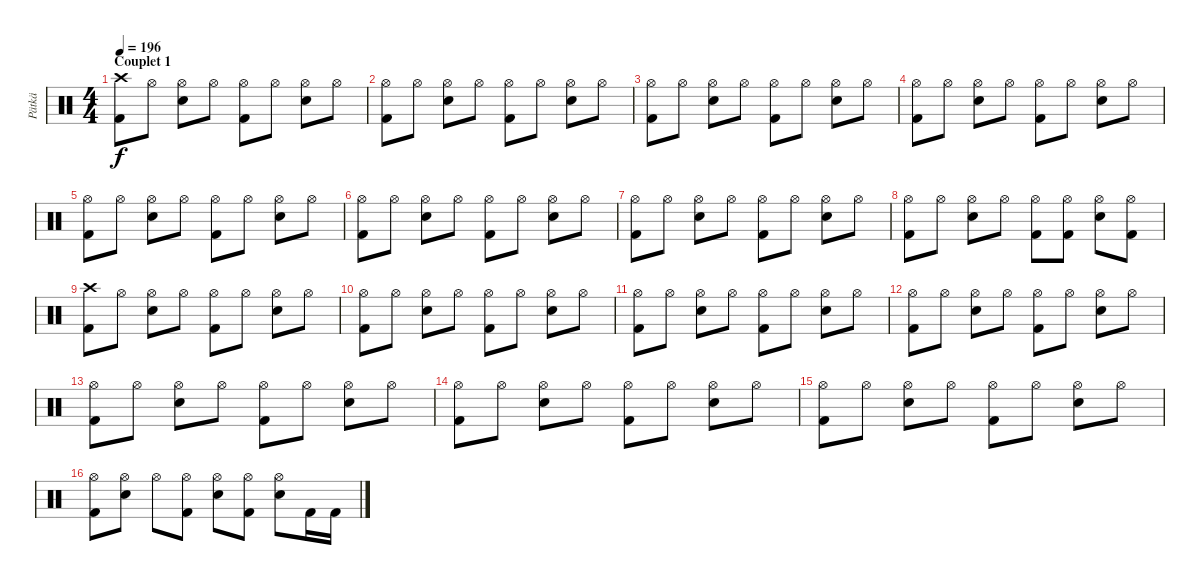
\track ("Pätkä" "Pätkä") {instrument percussion}
\staff {score}
\articulation defaults
\ts (4 4)
\section ("" "Couplet 1")
\tempo 196
\clef neutral
\ks c
("Crash high (hit)" "Kick (hit) 2").8{dy f} "Hi-Hat (open)".8 ("Hi-Hat (open)" "Electric Snare (hit)").8 "Hi-Hat (open)".8 ("Hi-Hat (open)" "Kick (hit) 2").8 "Hi-Hat (open)".8 ("Hi-Hat (open)" "Electric Snare (hit)").8 "Hi-Hat (open)".8 |
("Hi-Hat (open)" "Kick (hit) 2").8 "Hi-Hat (open)".8 ("Hi-Hat (open)" "Electric Snare (hit)").8 "Hi-Hat (open)".8 ("Hi-Hat (open)" "Kick (hit) 2").8 "Hi-Hat (open)".8 ("Hi-Hat (open)" "Electric Snare (hit)").8 "Hi-Hat (open)".8 |
("Hi-Hat (open)" "Kick (hit) 2").8 "Hi-Hat (open)".8 ("Hi-Hat (open)" "Electric Snare (hit)").8 "Hi-Hat (open)".8 ("Hi-Hat (open)" "Kick (hit) 2").8 "Hi-Hat (open)".8 ("Hi-Hat (open)" "Electric Snare (hit)").8 "Hi-Hat (open)".8 |
("Hi-Hat (open)" "Kick (hit) 2").8 "Hi-Hat (open)".8 ("Hi-Hat (open)" "Electric Snare (hit)").8 "Hi-Hat (open)".8 ("Hi-Hat (open)" "Kick (hit) 2").8 "Hi-Hat (open)".8 ("Hi-Hat (open)" "Electric Snare (hit)").8 "Hi-Hat (open)".8 |
("Hi-Hat (open)" "Kick (hit) 2").8 "Hi-Hat (open)".8 ("Hi-Hat (open)" "Electric Snare (hit)").8 "Hi-Hat (open)".8 ("Hi-Hat (open)" "Kick (hit) 2").8 "Hi-Hat (open)".8 ("Hi-Hat (open)" "Electric Snare (hit)").8 "Hi-Hat (open)".8 |
("Hi-Hat (open)" "Kick (hit) 2").8 "Hi-Hat (open)".8 ("Hi-Hat (open)" "Electric Snare (hit)").8 "Hi-Hat (open)".8 ("Hi-Hat (open)" "Kick (hit) 2").8 "Hi-Hat (open)".8 ("Hi-Hat (open)" "Electric Snare (hit)").8 "Hi-Hat (open)".8 |
("Hi-Hat (open)" "Kick (hit) 2").8 "Hi-Hat (open)".8 ("Hi-Hat (open)" "Electric Snare (hit)").8 "Hi-Hat (open)".8 ("Hi-Hat (open)" "Kick (hit) 2").8 "Hi-Hat (open)".8 ("Hi-Hat (open)" "Electric Snare (hit)").8 "Hi-Hat (open)".8 |
("Hi-Hat (open)" "Kick (hit) 2").8 "Hi-Hat (open)".8 ("Hi-Hat (open)" "Electric Snare (hit)").8 "Hi-Hat (open)".8 ("Hi-Hat (open)" "Kick (hit) 2").8 ("Hi-Hat (open)" "Kick (hit) 2").8 ("Hi-Hat (open)" "Electric Snare (hit)").8 ("Hi-Hat (open)" "Kick (hit) 2").8 |
("Crash high (hit)" "Kick (hit) 2").8 "Hi-Hat (open)".8 ("Hi-Hat (open)" "Electric Snare (hit)").8 "Hi-Hat (open)".8 ("Hi-Hat (open)" "Kick (hit) 2").8 "Hi-Hat (open)".8 ("Hi-Hat (open)" "Electric Snare (hit)").8 "Hi-Hat (open)".8 |
("Hi-Hat (open)" "Kick (hit) 2").8 "Hi-Hat (open)".8 ("Hi-Hat (open)" "Electric Snare (hit)").8 "Hi-Hat (open)".8 ("Hi-Hat (open)" "Kick (hit) 2").8 "Hi-Hat (open)".8 ("Hi-Hat (open)" "Electric Snare (hit)").8 "Hi-Hat (open)".8 |
("Hi-Hat (open)" "Kick (hit) 2").8 "Hi-Hat (open)".8 ("Hi-Hat (open)" "Electric Snare (hit)").8 "Hi-Hat (open)".8 ("Hi-Hat (open)" "Kick (hit) 2").8 "Hi-Hat (open)".8 ("Hi-Hat (open)" "Electric Snare (hit)").8 "Hi-Hat (open)".8 |
("Hi-Hat (open)" "Kick (hit) 2").8 "Hi-Hat (open)".8 ("Hi-Hat (open)" "Electric Snare (hit)").8 "Hi-Hat (open)".8 ("Hi-Hat (open)" "Kick (hit) 2").8 "Hi-Hat (open)".8 ("Hi-Hat (open)" "Electric Snare (hit)").8 "Hi-Hat (open)".8 |
("Hi-Hat (open)" "Kick (hit) 2").8 "Hi-Hat (open)".8 ("Hi-Hat (open)" "Electric Snare (hit)").8 "Hi-Hat (open)".8 ("Hi-Hat (open)" "Kick (hit) 2").8 "Hi-Hat (open)".8 ("Hi-Hat (open)" "Electric Snare (hit)").8 "Hi-Hat (open)".8 |
("Hi-Hat (open)" "Kick (hit) 2").8 "Hi-Hat (open)".8 ("Hi-Hat (open)" "Electric Snare (hit)").8 "Hi-Hat (open)".8 ("Hi-Hat (open)" "Kick (hit) 2").8 "Hi-Hat (open)".8 ("Hi-Hat (open)" "Electric Snare (hit)").8 "Hi-Hat (open)".8 |
("Hi-Hat (open)" "Kick (hit) 2").8 "Hi-Hat (open)".8 ("Hi-Hat (open)" "Electric Snare (hit)").8 "Hi-Hat (open)".8 ("Hi-Hat (open)" "Kick (hit) 2").8 "Hi-Hat (open)".8 ("Hi-Hat (open)" "Electric Snare (hit)").8 "Hi-Hat (open)".8 |
("Hi-Hat (open)" "Kick (hit) 2").8 ("Hi-Hat (open)" "Electric Snare (hit)").8 "Hi-Hat (open)".8 ("Hi-Hat (open)" "Kick (hit) 2").8 ("Hi-Hat (open)" "Electric Snare (hit)").8 ("Hi-Hat (open)" "Kick (hit) 2").8 ("Hi-Hat (open)" "Electric Snare (hit)").8 "Kick (hit) 2".16 "Kick (hit) 2".16
